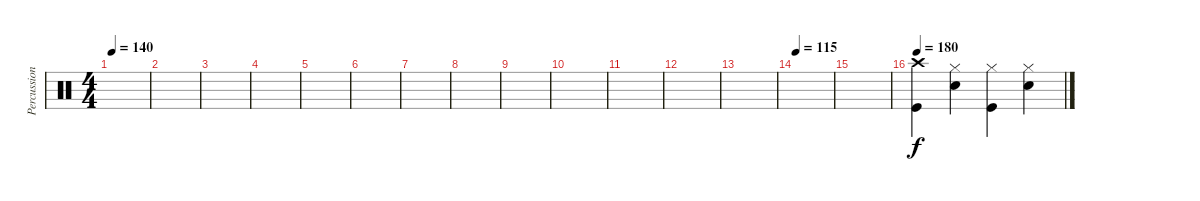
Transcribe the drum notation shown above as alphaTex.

\track ("Percussion" "Percussion") {instrument percussion}
\staff {score}
\articulation defaults
\ts (4 4)
\tempo 140
\clef neutral
\ks c
|
|
|
|
|
|
|
|
|
|
|
|
|
\tempo 115
|
|
\tempo 180
("Crash high (hit)" "Kick (hit)").4 ("Hi-Hat (closed)" "Snare (hit) 2").4 ("Hi-Hat (closed)" "Kick (hit)").4 ("Hi-Hat (closed)" "Snare (hit) 2").4
